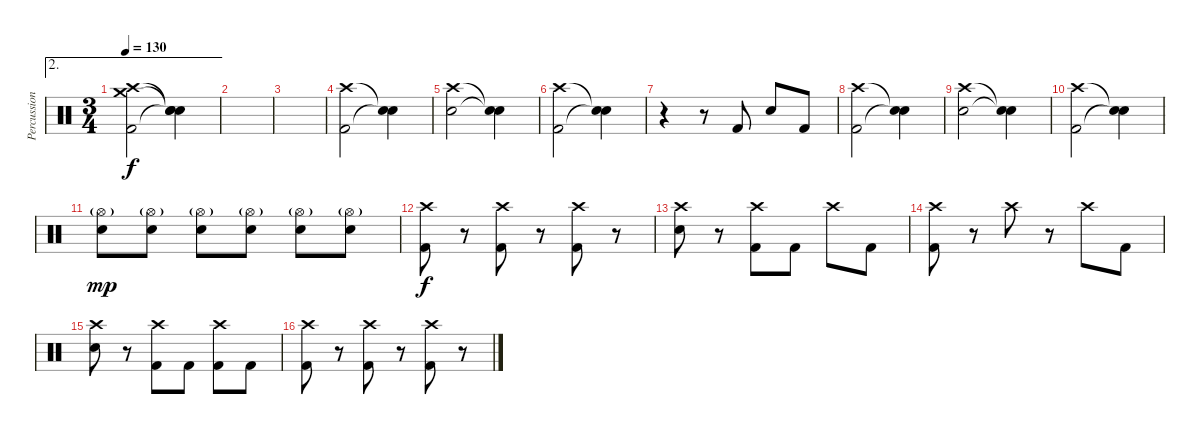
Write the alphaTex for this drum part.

\track ("Percussion" "Percussion") {instrument percussion}
\staff {score}
\articulation defaults
\ae 2
\ts (3 4)
\tempo 130
\clef neutral
\ks c
("Crash high (hit)" "Crash medium (hit)" "Kick (hit) 2").2{dy f} ("Snare (hit)"{t} "Snare (hit)"{t} "Snare (hit)"{t}).4 |
|
|
("Crash high (hit)" "Kick (hit) 2").2 ("Snare (hit)"{t} "Snare (hit)"{t}).4 |
("Crash high (hit)" "Electric Snare (hit)").2 ("Snare (hit)"{t} "Snare (hit)"{t}).4 |
("Crash high (hit)" "Kick (hit) 2").2 ("Snare (hit)"{t} "Snare (hit)"{t}).4 |
r.4 r.8 "Kick (hit) 2".8 "Electric Snare (hit)".8 "Kick (hit) 2".8 |
("Crash high (hit)" "Kick (hit) 2").2 ("Snare (hit)"{t} "Snare (hit)"{t}).4 |
("Crash high (hit)" "Electric Snare (hit)").2 ("Snare (hit)"{t} "Snare (hit)"{t}).4 |
("Crash high (hit)" "Kick (hit) 2").2 ("Snare (hit)"{t} "Snare (hit)"{t}).4 |
("Hi-Hat (open)"{g} "Electric Snare (hit)").8{dy mp} ("Hi-Hat (open)"{g} "Electric Snare (hit)").8 ("Hi-Hat (open)"{g} "Electric Snare (hit)").8 ("Hi-Hat (open)"{g} "Electric Snare (hit)").8 ("Hi-Hat (open)"{g} "Electric Snare (hit)").8 ("Hi-Hat (open)"{g} "Electric Snare (hit)").8 |
("Crash high (hit)" "Kick (hit) 2").8{dy f} r.8 ("Crash high (hit)" "Kick (hit) 2").8 r.8 ("Crash high (hit)" "Kick (hit) 2").8 r.8 |
("Crash high (hit)" "Electric Snare (hit)").8 r.8 ("Crash high (hit)" "Kick (hit) 2").8 "Kick (hit) 2".8 "Crash high (hit)".8 "Kick (hit) 2".8 |
("Crash high (hit)" "Kick (hit) 2").8 r.8 "Crash high (hit)".8 r.8 "Crash high (hit)".8 "Kick (hit) 2".8 |
("Crash high (hit)" "Electric Snare (hit)").8 r.8 ("Crash high (hit)" "Kick (hit) 2").8 "Kick (hit) 2".8 ("Crash high (hit)" "Kick (hit) 2").8 "Kick (hit) 2".8 |
("Crash high (hit)" "Kick (hit) 2").8 r.8 ("Crash high (hit)" "Kick (hit) 2").8 r.8 ("Crash high (hit)" "Kick (hit) 2").8 r.8
